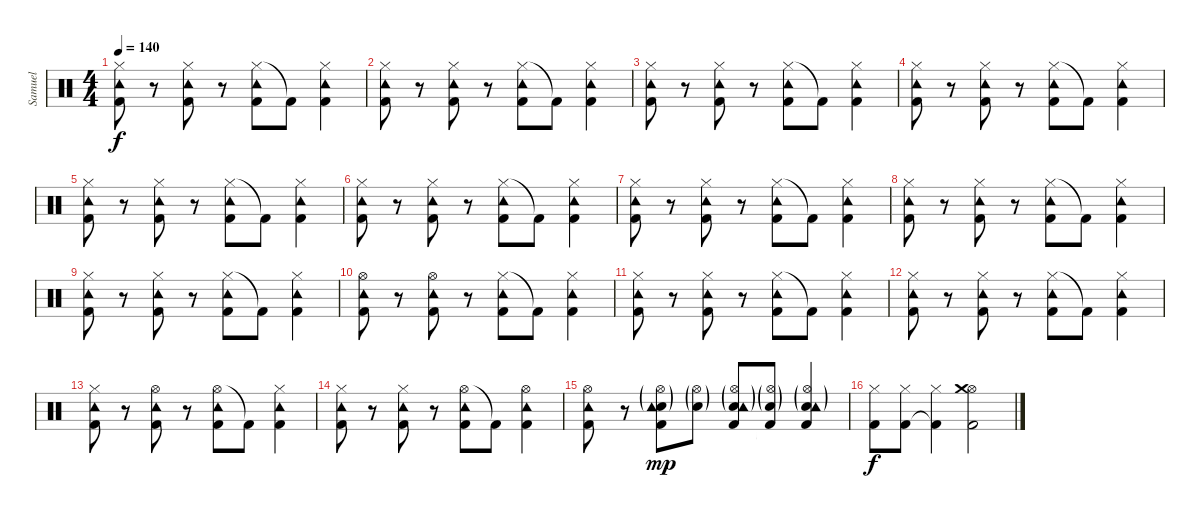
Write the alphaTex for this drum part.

\track ("Samuel" "Samuel") {instrument percussion}
\staff {score}
\articulation defaults
\ts (4 4)
\tempo 140
\clef neutral
\ks c
("Hi-Hat (closed)" "Kick (hit) 2" "Tambourine (hit)").8{dy f} r.8 ("Hi-Hat (closed)" "Kick (hit) 2" "Tambourine (hit)").8 r.8 ("Hi-Hat (closed)" "Kick (hit) 2" "Tambourine (hit)").8 "Kick (hit) 2"{t}.8 ("Hi-Hat (closed)" "Kick (hit) 2" "Tambourine (hit)").4 |
("Hi-Hat (closed)" "Kick (hit) 2" "Tambourine (hit)").8 r.8 ("Hi-Hat (closed)" "Kick (hit) 2" "Tambourine (hit)").8 r.8 ("Hi-Hat (closed)" "Kick (hit) 2" "Tambourine (hit)").8 "Kick (hit) 2"{t}.8 ("Hi-Hat (closed)" "Kick (hit) 2" "Tambourine (hit)").4 |
("Hi-Hat (closed)" "Kick (hit) 2" "Tambourine (hit)").8 r.8 ("Hi-Hat (closed)" "Kick (hit) 2" "Tambourine (hit)").8 r.8 ("Hi-Hat (closed)" "Kick (hit) 2" "Tambourine (hit)").8 "Kick (hit) 2"{t}.8 ("Hi-Hat (closed)" "Kick (hit) 2" "Tambourine (hit)").4 |
("Hi-Hat (closed)" "Kick (hit) 2" "Tambourine (hit)").8 r.8 ("Hi-Hat (closed)" "Kick (hit) 2" "Tambourine (hit)").8 r.8 ("Hi-Hat (closed)" "Kick (hit) 2" "Tambourine (hit)").8 "Kick (hit) 2"{t}.8 ("Hi-Hat (closed)" "Kick (hit) 2" "Tambourine (hit)").4 |
("Hi-Hat (closed)" "Kick (hit) 2" "Tambourine (hit)").8 r.8 ("Hi-Hat (closed)" "Kick (hit) 2" "Tambourine (hit)").8 r.8 ("Hi-Hat (closed)" "Kick (hit) 2" "Tambourine (hit)").8 "Kick (hit) 2"{t}.8 ("Hi-Hat (closed)" "Kick (hit) 2" "Tambourine (hit)").4 |
("Hi-Hat (closed)" "Kick (hit) 2" "Tambourine (hit)").8 r.8 ("Hi-Hat (closed)" "Kick (hit) 2" "Tambourine (hit)").8 r.8 ("Hi-Hat (closed)" "Kick (hit) 2" "Tambourine (hit)").8 "Kick (hit) 2"{t}.8 ("Hi-Hat (closed)" "Kick (hit) 2" "Tambourine (hit)").4 |
("Hi-Hat (closed)" "Kick (hit) 2" "Tambourine (hit)").8 r.8 ("Hi-Hat (closed)" "Kick (hit) 2" "Tambourine (hit)").8 r.8 ("Hi-Hat (closed)" "Kick (hit) 2" "Tambourine (hit)").8 "Kick (hit) 2"{t}.8 ("Hi-Hat (closed)" "Kick (hit) 2" "Tambourine (hit)").4 |
("Hi-Hat (closed)" "Kick (hit) 2" "Tambourine (hit)").8 r.8 ("Hi-Hat (closed)" "Kick (hit) 2" "Tambourine (hit)").8 r.8 ("Hi-Hat (closed)" "Kick (hit) 2" "Tambourine (hit)").8 "Kick (hit) 2"{t}.8 ("Hi-Hat (closed)" "Kick (hit) 2" "Tambourine (hit)").4 |
("Hi-Hat (closed)" "Kick (hit) 2" "Tambourine (hit)").8 r.8 ("Hi-Hat (closed)" "Kick (hit) 2" "Tambourine (hit)").8 r.8 ("Hi-Hat (closed)" "Kick (hit) 2" "Tambourine (hit)").8 "Kick (hit) 2"{t}.8 ("Hi-Hat (closed)" "Kick (hit) 2" "Tambourine (hit)").4 |
("Hi-Hat (open)" "Kick (hit) 2" "Tambourine (hit)").8 r.8 ("Hi-Hat (open)" "Kick (hit) 2" "Tambourine (hit)").8 r.8 ("Hi-Hat (closed)" "Kick (hit) 2" "Tambourine (hit)").8 "Kick (hit) 2"{t}.8 ("Hi-Hat (closed)" "Kick (hit) 2" "Tambourine (hit)").4 |
("Hi-Hat (closed)" "Kick (hit) 2" "Tambourine (hit)").8 r.8 ("Hi-Hat (closed)" "Kick (hit) 2" "Tambourine (hit)").8 r.8 ("Hi-Hat (closed)" "Kick (hit) 2" "Tambourine (hit)").8 "Kick (hit) 2"{t}.8 ("Hi-Hat (closed)" "Kick (hit) 2" "Tambourine (hit)").4 |
("Hi-Hat (closed)" "Kick (hit) 2" "Tambourine (hit)").8 r.8 ("Hi-Hat (closed)" "Kick (hit) 2" "Tambourine (hit)").8 r.8 ("Hi-Hat (closed)" "Kick (hit) 2" "Tambourine (hit)").8 "Kick (hit) 2"{t}.8 ("Hi-Hat (closed)" "Kick (hit) 2" "Tambourine (hit)").4 |
("Hi-Hat (closed)" "Kick (hit) 2" "Tambourine (hit)").8 r.8 ("Hi-Hat (open)" "Kick (hit) 2" "Tambourine (hit)").8 r.8 ("Hi-Hat (open)" "Kick (hit) 2" "Tambourine (hit)").8 "Kick (hit) 2"{t}.8 ("Hi-Hat (closed)" "Kick (hit) 2" "Tambourine (hit)").4 |
("Hi-Hat (closed)" "Kick (hit) 2" "Tambourine (hit)").8 r.8 ("Hi-Hat (closed)" "Kick (hit) 2" "Tambourine (hit)").8 r.8 ("Hi-Hat (open)" "Kick (hit) 2" "Tambourine (hit)").8 "Kick (hit) 2"{t}.8 ("Hi-Hat (open)" "Kick (hit) 2" "Tambourine (hit)").4 |
("Hi-Hat (open)" "Kick (hit) 2" "Tambourine (hit)").8 r.8 ("Hi-Hat (open)"{g} "Snare (hit) 2"{g} "Kick (hit) 2" "Tambourine (hit)").8{dy mp} ("Hi-Hat (open)"{g} "Snare (hit) 2"{g}).8 ("Hi-Hat (open)"{g} "Snare (hit) 2"{g} "Kick (hit) 2" "Tambourine (hit)").8 ("Hi-Hat (open)"{g} "Snare (hit) 2"{g} "Kick (hit) 2"{t}).8 ("Hi-Hat (open)"{g} "Snare (hit) 2"{g} "Kick (hit) 2" "Tambourine (hit)").4 |
("Hi-Hat (closed)" "Kick (hit) 2").8{dy f} ("Hi-Hat (closed)" "Kick (hit) 2").8 ("Hi-Hat (closed)" "Kick (hit) 2"{t}).4 ("Hi-Hat (open)" "Crash medium (hit)" "Kick (hit) 2").2
